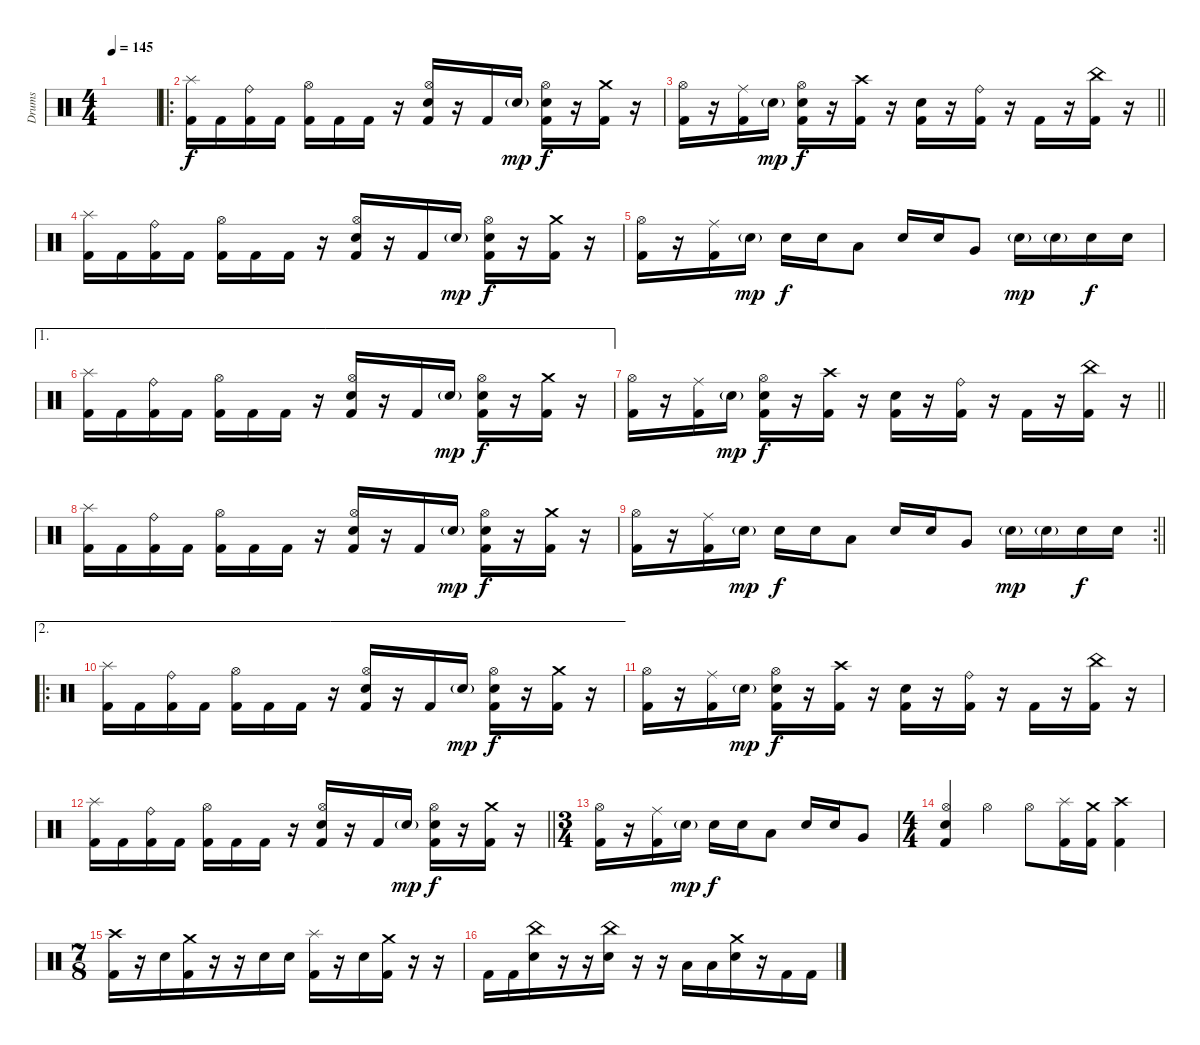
\track ("Drums" "Drums") {mute instrument percussion}
\staff {score}
\articulation defaults
\ts (4 4)
\tempo 145
\clef neutral
\ks c
|
\ro
("Splash (hit)" "Kick (hit) 2").16{volume 13} "Kick (hit) 2".16 ("Ride (bell)" "Kick (hit) 2").16 "Kick (hit) 2".16 ("Hi-Hat (open)" "Kick (hit) 2").16 "Kick (hit) 2".16 "Kick (hit) 2".16 r.16 ("Hi-Hat (open)" "Electric Snare (hit)" "Kick (hit) 2").16 r.16 "Kick (hit) 2".16 "Electric Snare (hit)"{g}.16{dy mp} ("Hi-Hat (open)" "Electric Snare (hit)" "Kick (hit) 2").16{dy f} r.16 ("Crash medium (hit)" "Kick (hit) 2").16 r.16 |
\barLineRight lightlight
("Hi-Hat (open)" "Kick (hit) 2").16 r.16 ("Ride (middle)" "Kick (hit) 2").16 "Electric Snare (hit)"{g}.16{dy mp} ("Hi-Hat (open)" "Electric Snare (hit)" "Kick (hit) 2").16{dy f} r.16 ("Crash high (hit)" "Kick (hit) 2").16 r.16 ("Electric Snare (hit)" "Kick (hit) 2").16 r.16 ("Ride (bell)" "Kick (hit) 2").16 r.16 "Kick (hit) 2".16 r.16 ("China (hit)" "Kick (hit) 2").16 r.16 |
("Splash (hit)" "Kick (hit) 2").16{volume 13} "Kick (hit) 2".16 ("Ride (bell)" "Kick (hit) 2").16 "Kick (hit) 2".16 ("Hi-Hat (open)" "Kick (hit) 2").16 "Kick (hit) 2".16 "Kick (hit) 2".16 r.16 ("Hi-Hat (open)" "Electric Snare (hit)" "Kick (hit) 2").16 r.16 "Kick (hit) 2".16 "Electric Snare (hit)"{g}.16{dy mp} ("Hi-Hat (open)" "Electric Snare (hit)" "Kick (hit) 2").16{dy f} r.16 ("Crash medium (hit)" "Kick (hit) 2").16 r.16 |
("Hi-Hat (open)" "Kick (hit) 2").16 r.16 ("Ride (middle)" "Kick (hit) 2").16 "Electric Snare (hit)"{g}.16{dy mp} "Electric Snare (hit)".16{dy f} "Electric Snare (hit)".16 "Low Tom (hit)".8 "Electric Snare (hit)".16 "Electric Snare (hit)".16 "Very Low Tom (hit)".8 "Electric Snare (hit)"{g}.16{dy mp} "Electric Snare (hit)"{g}.16 "Electric Snare (hit)".16{dy f} "Electric Snare (hit)".16 |
\ae 1
("Splash (hit)" "Kick (hit) 2").16{volume 13} "Kick (hit) 2".16 ("Ride (bell)" "Kick (hit) 2").16 "Kick (hit) 2".16 ("Hi-Hat (open)" "Kick (hit) 2").16 "Kick (hit) 2".16 "Kick (hit) 2".16 r.16 ("Hi-Hat (open)" "Electric Snare (hit)" "Kick (hit) 2").16 r.16 "Kick (hit) 2".16 "Electric Snare (hit)"{g}.16{dy mp} ("Hi-Hat (open)" "Electric Snare (hit)" "Kick (hit) 2").16{dy f} r.16 ("Crash medium (hit)" "Kick (hit) 2").16 r.16 |
\barLineRight lightlight
("Hi-Hat (open)" "Kick (hit) 2").16 r.16 ("Ride (middle)" "Kick (hit) 2").16 "Electric Snare (hit)"{g}.16{dy mp} ("Hi-Hat (open)" "Electric Snare (hit)" "Kick (hit) 2").16{dy f} r.16 ("Crash high (hit)" "Kick (hit) 2").16 r.16 ("Electric Snare (hit)" "Kick (hit) 2").16 r.16 ("Ride (bell)" "Kick (hit) 2").16 r.16 "Kick (hit) 2".16 r.16 ("China (hit)" "Kick (hit) 2").16 r.16 |
("Splash (hit)" "Kick (hit) 2").16{volume 13} "Kick (hit) 2".16 ("Ride (bell)" "Kick (hit) 2").16 "Kick (hit) 2".16 ("Hi-Hat (open)" "Kick (hit) 2").16 "Kick (hit) 2".16 "Kick (hit) 2".16 r.16 ("Hi-Hat (open)" "Electric Snare (hit)" "Kick (hit) 2").16 r.16 "Kick (hit) 2".16 "Electric Snare (hit)"{g}.16{dy mp} ("Hi-Hat (open)" "Electric Snare (hit)" "Kick (hit) 2").16{dy f} r.16 ("Crash medium (hit)" "Kick (hit) 2").16 r.16 |
\rc 2
\barLineRight lightlight
("Hi-Hat (open)" "Kick (hit) 2").16 r.16 ("Ride (middle)" "Kick (hit) 2").16 "Electric Snare (hit)"{g}.16{dy mp} "Electric Snare (hit)".16{dy f} "Electric Snare (hit)".16 "Low Tom (hit)".8 "Electric Snare (hit)".16 "Electric Snare (hit)".16 "Very Low Tom (hit)".8 "Electric Snare (hit)"{g}.16{dy mp} "Electric Snare (hit)"{g}.16 "Electric Snare (hit)".16{dy f} "Electric Snare (hit)".16 |
\ae 2
\ro
("Splash (hit)" "Kick (hit) 2").16{volume 13} "Kick (hit) 2".16 ("Ride (bell)" "Kick (hit) 2").16 "Kick (hit) 2".16 ("Hi-Hat (open)" "Kick (hit) 2").16 "Kick (hit) 2".16 "Kick (hit) 2".16 r.16 ("Hi-Hat (open)" "Electric Snare (hit)" "Kick (hit) 2").16 r.16 "Kick (hit) 2".16 "Electric Snare (hit)"{g}.16{dy mp} ("Hi-Hat (open)" "Electric Snare (hit)" "Kick (hit) 2").16{dy f} r.16 ("Crash medium (hit)" "Kick (hit) 2").16 r.16 |
("Hi-Hat (open)" "Kick (hit) 2").16 r.16 ("Ride (middle)" "Kick (hit) 2").16 "Electric Snare (hit)"{g}.16{dy mp} ("Hi-Hat (open)" "Electric Snare (hit)" "Kick (hit) 2").16{dy f} r.16 ("Crash high (hit)" "Kick (hit) 2").16 r.16 ("Electric Snare (hit)" "Kick (hit) 2").16 r.16 ("Ride (bell)" "Kick (hit) 2").16 r.16 "Kick (hit) 2".16 r.16 ("China (hit)" "Kick (hit) 2").16 r.16 |
\barLineRight lightlight
("Splash (hit)" "Kick (hit) 2").16{volume 13} "Kick (hit) 2".16 ("Ride (bell)" "Kick (hit) 2").16 "Kick (hit) 2".16 ("Hi-Hat (open)" "Kick (hit) 2").16 "Kick (hit) 2".16 "Kick (hit) 2".16 r.16 ("Hi-Hat (open)" "Electric Snare (hit)" "Kick (hit) 2").16 r.16 "Kick (hit) 2".16 "Electric Snare (hit)"{g}.16{dy mp} ("Hi-Hat (open)" "Electric Snare (hit)" "Kick (hit) 2").16{dy f} r.16 ("Crash medium (hit)" "Kick (hit) 2").16 r.16 |
\ts (3 4)
("Hi-Hat (open)" "Kick (hit) 2").16 r.16 ("Ride (middle)" "Kick (hit) 2").16 "Electric Snare (hit)"{g}.16{dy mp} "Electric Snare (hit)".16{dy f} "Electric Snare (hit)".16 "Low Tom (hit)".8 "Electric Snare (hit)".16 "Electric Snare (hit)".16 "Very Low Tom (hit)".8 |
\ts (4 4)
("Hi-Hat (open)" "Electric Snare (hit)" "Kick (hit) 2").4 "Hi-Hat (open)".4 "Hi-Hat (open)".8 ("Splash (hit)" "Kick (hit) 2").16 ("Crash medium (hit)" "Kick (hit) 2").16 ("Crash high (hit)" "Kick (hit) 2").4 |
\ts (7 8)
("Crash high (hit)" "Kick (hit) 2").16 r.16 "Electric Snare (hit)".16 ("Crash medium (hit)" "Kick (hit) 2").16 r.16 r.16 "Electric Snare (hit)".16 "Electric Snare (hit)".16 ("Splash (hit)" "Kick (hit) 2").16 r.16 "Electric Snare (hit)".16 ("Crash medium (hit)" "Kick (hit) 2").16 r.16 r.16 |
"Kick (hit) 2".16 "Kick (hit) 2".16 ("China (hit)" "Electric Snare (hit)").16 r.16 r.16 ("China (hit)" "Electric Snare (hit)").16 r.16 r.16 "Low Tom (hit)".16 "Low Tom (hit)".16 ("Crash medium (hit)" "Electric Snare (hit)").16 r.16 "Kick (hit) 2".16 "Kick (hit) 2".16
